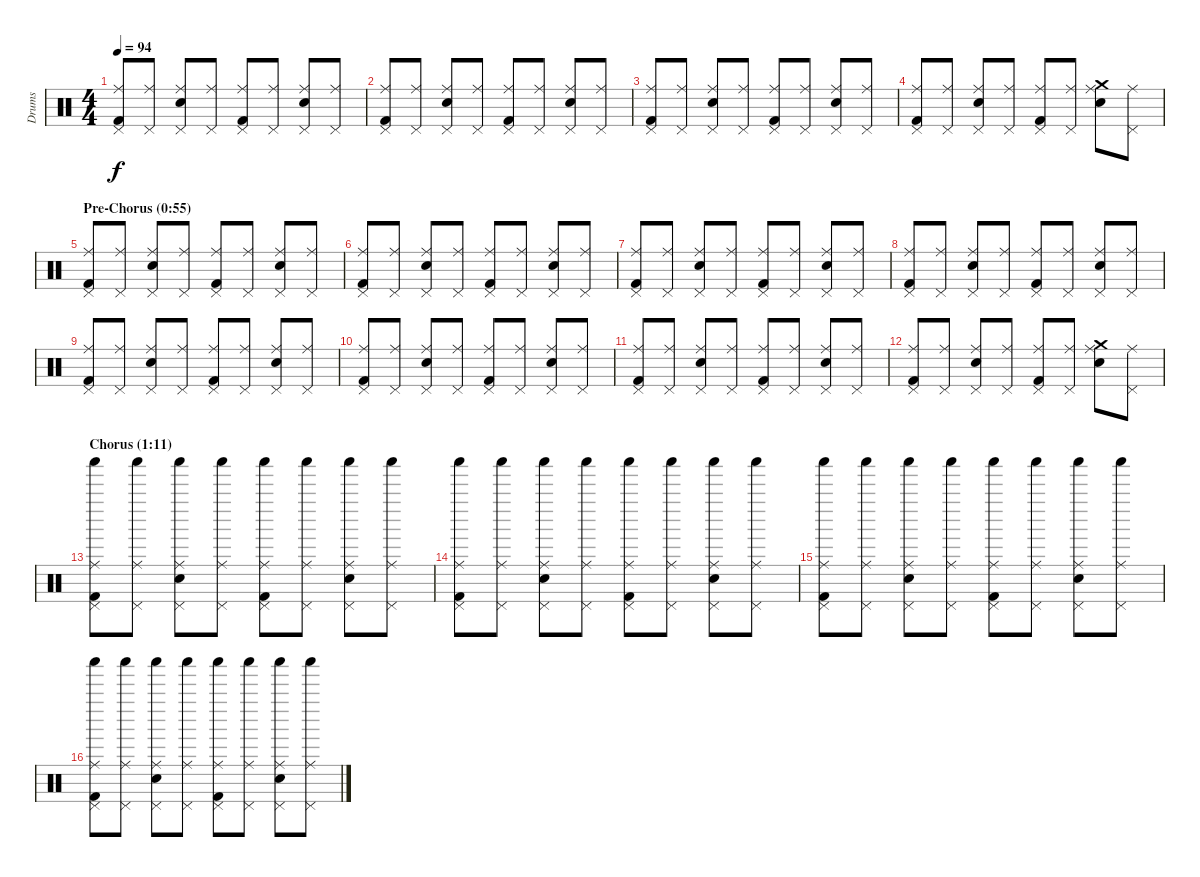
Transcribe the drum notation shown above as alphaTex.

\track ("Drums" "Drums") {instrument percussion}
\staff {score}
\articulation defaults
\ts (4 4)
\tempo 94
\clef neutral
\ks c
("Pedal Hi-Hat (hit)" "Ride (middle)" "Kick (hit) 2").8{dy f} ("Pedal Hi-Hat (hit)" "Ride (middle)").8 ("Pedal Hi-Hat (hit)" "Ride (middle)" "Snare (hit) 2").8 ("Pedal Hi-Hat (hit)" "Ride (middle)").8 ("Pedal Hi-Hat (hit)" "Ride (middle)" "Kick (hit) 2").8 ("Pedal Hi-Hat (hit)" "Ride (middle)").8 ("Pedal Hi-Hat (hit)" "Ride (middle)" "Snare (hit) 2").8 ("Pedal Hi-Hat (hit)" "Ride (middle)").8 |
("Pedal Hi-Hat (hit)" "Ride (middle)" "Kick (hit) 2").8 ("Pedal Hi-Hat (hit)" "Ride (middle)").8 ("Pedal Hi-Hat (hit)" "Ride (middle)" "Snare (hit) 2").8 ("Pedal Hi-Hat (hit)" "Ride (middle)").8 ("Pedal Hi-Hat (hit)" "Ride (middle)" "Kick (hit) 2").8 ("Pedal Hi-Hat (hit)" "Ride (middle)").8 ("Pedal Hi-Hat (hit)" "Ride (middle)" "Snare (hit) 2").8 ("Pedal Hi-Hat (hit)" "Ride (middle)").8 |
("Pedal Hi-Hat (hit)" "Ride (middle)" "Kick (hit) 2").8 ("Pedal Hi-Hat (hit)" "Ride (middle)").8 ("Pedal Hi-Hat (hit)" "Ride (middle)" "Snare (hit) 2").8 ("Pedal Hi-Hat (hit)" "Ride (middle)").8 ("Pedal Hi-Hat (hit)" "Ride (middle)" "Kick (hit) 2").8 ("Pedal Hi-Hat (hit)" "Ride (middle)").8 ("Pedal Hi-Hat (hit)" "Ride (middle)" "Snare (hit) 2").8 ("Pedal Hi-Hat (hit)" "Ride (middle)").8 |
("Pedal Hi-Hat (hit)" "Ride (middle)" "Kick (hit) 2").8 ("Pedal Hi-Hat (hit)" "Ride (middle)").8 ("Pedal Hi-Hat (hit)" "Ride (middle)" "Snare (hit) 2").8 ("Pedal Hi-Hat (hit)" "Ride (middle)").8 ("Pedal Hi-Hat (hit)" "Ride (middle)" "Kick (hit) 2").8 ("Pedal Hi-Hat (hit)" "Ride (middle)").8 ("Crash medium (hit)" "Ride (middle)" "Snare (hit) 2").8 ("Pedal Hi-Hat (hit)" "Ride (middle)").8 |
\section ("" "Pre-Chorus (0:55)")
("Pedal Hi-Hat (hit)" "Ride (middle)" "Kick (hit) 2").8 ("Pedal Hi-Hat (hit)" "Ride (middle)").8 ("Pedal Hi-Hat (hit)" "Ride (middle)" "Snare (hit) 2").8 ("Pedal Hi-Hat (hit)" "Ride (middle)").8 ("Pedal Hi-Hat (hit)" "Ride (middle)" "Kick (hit) 2").8 ("Pedal Hi-Hat (hit)" "Ride (middle)").8 ("Pedal Hi-Hat (hit)" "Ride (middle)" "Snare (hit) 2").8 ("Pedal Hi-Hat (hit)" "Ride (middle)").8 |
("Pedal Hi-Hat (hit)" "Ride (middle)" "Kick (hit) 2").8 ("Pedal Hi-Hat (hit)" "Ride (middle)").8 ("Pedal Hi-Hat (hit)" "Ride (middle)" "Snare (hit) 2").8 ("Pedal Hi-Hat (hit)" "Ride (middle)").8 ("Pedal Hi-Hat (hit)" "Ride (middle)" "Kick (hit) 2").8 ("Pedal Hi-Hat (hit)" "Ride (middle)").8 ("Pedal Hi-Hat (hit)" "Ride (middle)" "Snare (hit) 2").8 ("Pedal Hi-Hat (hit)" "Ride (middle)").8 |
("Pedal Hi-Hat (hit)" "Ride (middle)" "Kick (hit) 2").8 ("Pedal Hi-Hat (hit)" "Ride (middle)").8 ("Pedal Hi-Hat (hit)" "Ride (middle)" "Snare (hit) 2").8 ("Pedal Hi-Hat (hit)" "Ride (middle)").8 ("Pedal Hi-Hat (hit)" "Ride (middle)" "Kick (hit) 2").8 ("Pedal Hi-Hat (hit)" "Ride (middle)").8 ("Pedal Hi-Hat (hit)" "Ride (middle)" "Snare (hit) 2").8 ("Pedal Hi-Hat (hit)" "Ride (middle)").8 |
("Pedal Hi-Hat (hit)" "Ride (middle)" "Kick (hit) 2").8 ("Pedal Hi-Hat (hit)" "Ride (middle)").8 ("Pedal Hi-Hat (hit)" "Ride (middle)" "Snare (hit) 2").8 ("Pedal Hi-Hat (hit)" "Ride (middle)").8 ("Pedal Hi-Hat (hit)" "Ride (middle)" "Kick (hit) 2").8 ("Pedal Hi-Hat (hit)" "Ride (middle)").8 ("Pedal Hi-Hat (hit)" "Ride (middle)" "Snare (hit) 2").8 ("Pedal Hi-Hat (hit)" "Ride (middle)").8 |
("Pedal Hi-Hat (hit)" "Ride (middle)" "Kick (hit) 2").8 ("Pedal Hi-Hat (hit)" "Ride (middle)").8 ("Pedal Hi-Hat (hit)" "Ride (middle)" "Snare (hit) 2").8 ("Pedal Hi-Hat (hit)" "Ride (middle)").8 ("Pedal Hi-Hat (hit)" "Ride (middle)" "Kick (hit) 2").8 ("Pedal Hi-Hat (hit)" "Ride (middle)").8 ("Pedal Hi-Hat (hit)" "Ride (middle)" "Snare (hit) 2").8 ("Pedal Hi-Hat (hit)" "Ride (middle)").8 |
("Pedal Hi-Hat (hit)" "Ride (middle)" "Kick (hit) 2").8 ("Pedal Hi-Hat (hit)" "Ride (middle)").8 ("Pedal Hi-Hat (hit)" "Ride (middle)" "Snare (hit) 2").8 ("Pedal Hi-Hat (hit)" "Ride (middle)").8 ("Pedal Hi-Hat (hit)" "Ride (middle)" "Kick (hit) 2").8 ("Pedal Hi-Hat (hit)" "Ride (middle)").8 ("Pedal Hi-Hat (hit)" "Ride (middle)" "Snare (hit) 2").8 ("Pedal Hi-Hat (hit)" "Ride (middle)").8 |
("Pedal Hi-Hat (hit)" "Ride (middle)" "Kick (hit) 2").8 ("Pedal Hi-Hat (hit)" "Ride (middle)").8 ("Pedal Hi-Hat (hit)" "Ride (middle)" "Snare (hit) 2").8 ("Pedal Hi-Hat (hit)" "Ride (middle)").8 ("Pedal Hi-Hat (hit)" "Ride (middle)" "Kick (hit) 2").8 ("Pedal Hi-Hat (hit)" "Ride (middle)").8 ("Pedal Hi-Hat (hit)" "Ride (middle)" "Snare (hit) 2").8 ("Pedal Hi-Hat (hit)" "Ride (middle)").8 |
("Pedal Hi-Hat (hit)" "Ride (middle)" "Kick (hit) 2").8 ("Pedal Hi-Hat (hit)" "Ride (middle)").8 ("Pedal Hi-Hat (hit)" "Ride (middle)" "Snare (hit) 2").8 ("Pedal Hi-Hat (hit)" "Ride (middle)").8 ("Pedal Hi-Hat (hit)" "Ride (middle)" "Kick (hit) 2").8 ("Pedal Hi-Hat (hit)" "Ride (middle)").8 ("Crash medium (hit)" "Ride (middle)" "Snare (hit) 2").8 ("Pedal Hi-Hat (hit)" "Ride (middle)").8 |
\section ("" "Chorus (1:11)")
("Pedal Hi-Hat (hit)" "Ride (middle)" "Shaker (hit)" "Kick (hit) 2").8 ("Pedal Hi-Hat (hit)" "Ride (middle)" "Shaker (hit)").8 ("Pedal Hi-Hat (hit)" "Ride (middle)" "Shaker (hit)" "Snare (hit) 2").8 ("Pedal Hi-Hat (hit)" "Ride (middle)" "Shaker (hit)").8 ("Pedal Hi-Hat (hit)" "Ride (middle)" "Shaker (hit)" "Kick (hit) 2").8 ("Pedal Hi-Hat (hit)" "Ride (middle)" "Shaker (hit)").8 ("Pedal Hi-Hat (hit)" "Ride (middle)" "Shaker (hit)" "Snare (hit) 2").8 ("Pedal Hi-Hat (hit)" "Ride (middle)" "Shaker (hit)").8 |
("Pedal Hi-Hat (hit)" "Ride (middle)" "Shaker (hit)" "Kick (hit) 2").8 ("Pedal Hi-Hat (hit)" "Ride (middle)" "Shaker (hit)").8 ("Pedal Hi-Hat (hit)" "Ride (middle)" "Shaker (hit)" "Snare (hit) 2").8 ("Pedal Hi-Hat (hit)" "Ride (middle)" "Shaker (hit)").8 ("Pedal Hi-Hat (hit)" "Ride (middle)" "Shaker (hit)" "Kick (hit) 2").8 ("Pedal Hi-Hat (hit)" "Ride (middle)" "Shaker (hit)").8 ("Pedal Hi-Hat (hit)" "Ride (middle)" "Shaker (hit)" "Snare (hit) 2").8 ("Pedal Hi-Hat (hit)" "Ride (middle)" "Shaker (hit)").8 |
("Pedal Hi-Hat (hit)" "Ride (middle)" "Shaker (hit)" "Kick (hit) 2").8 ("Pedal Hi-Hat (hit)" "Ride (middle)" "Shaker (hit)").8 ("Pedal Hi-Hat (hit)" "Ride (middle)" "Shaker (hit)" "Snare (hit) 2").8 ("Pedal Hi-Hat (hit)" "Ride (middle)" "Shaker (hit)").8 ("Pedal Hi-Hat (hit)" "Ride (middle)" "Shaker (hit)" "Kick (hit) 2").8 ("Pedal Hi-Hat (hit)" "Ride (middle)" "Shaker (hit)").8 ("Pedal Hi-Hat (hit)" "Ride (middle)" "Shaker (hit)" "Snare (hit) 2").8 ("Pedal Hi-Hat (hit)" "Ride (middle)" "Shaker (hit)").8 |
("Pedal Hi-Hat (hit)" "Ride (middle)" "Shaker (hit)" "Kick (hit) 2").8 ("Pedal Hi-Hat (hit)" "Ride (middle)" "Shaker (hit)").8 ("Pedal Hi-Hat (hit)" "Ride (middle)" "Shaker (hit)" "Snare (hit) 2").8 ("Pedal Hi-Hat (hit)" "Ride (middle)" "Shaker (hit)").8 ("Pedal Hi-Hat (hit)" "Ride (middle)" "Shaker (hit)" "Kick (hit) 2").8 ("Pedal Hi-Hat (hit)" "Ride (middle)" "Shaker (hit)").8 ("Pedal Hi-Hat (hit)" "Ride (middle)" "Shaker (hit)" "Snare (hit) 2").8 ("Pedal Hi-Hat (hit)" "Ride (middle)" "Shaker (hit)").8
